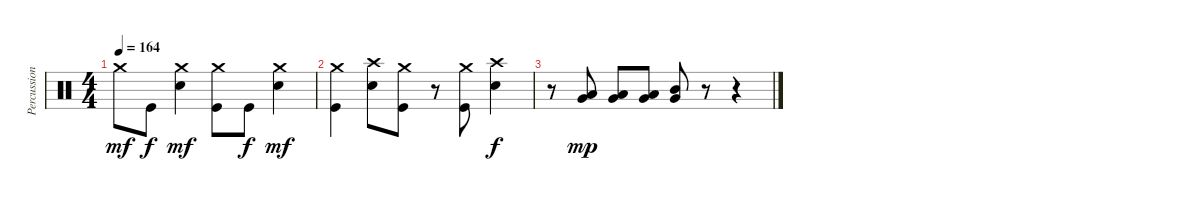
\track ("Percussion" "Percussion") {instrument percussion}
\staff {score}
\articulation defaults
\ts (4 4)
\tempo 164
\clef neutral
\ks c "Crash medium (hit)".8{dy mf} "Kick (hit)".8{dy f}
("Electric Snare (hit)" "Crash medium (hit)").4{dy mf} ("Kick (hit)" "Crash medium (hit)").8 "Kick (hit)".8{dy f} ("Electric Snare (hit)" "Crash medium (hit)").4{dy mf} |
("Kick (hit)" "Crash medium (hit)").4 ("Electric Snare (hit)" "Crash high (hit)").8 ("Kick (hit)" "Crash medium (hit)").8 r.8 ("Kick (hit)" "Crash medium (hit)").8 ("Electric Snare (hit)" "Crash high (hit)").4{dy f} |
r.8 ("Very Low Tom (hit)" "Low Tom (hit)").8{dy mp} ("Very Low Tom (hit)" "Low Tom (hit)").8 ("Very Low Tom (hit)" "Low Tom (hit)").8 ("Very Low Tom (hit)" "Mid Tom (hit)").8 r.8 r.4
